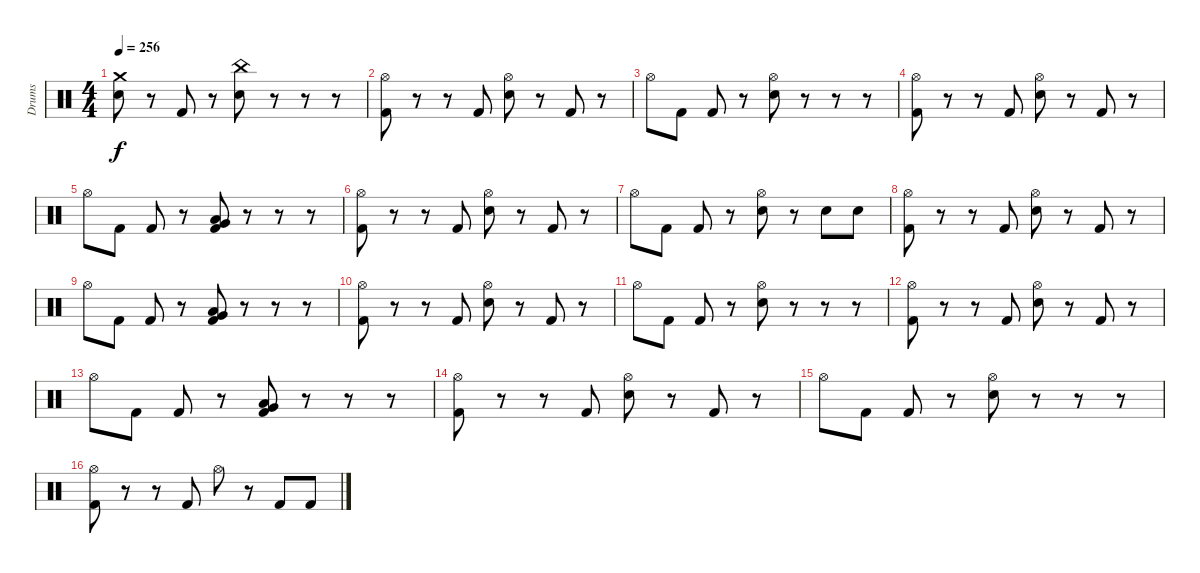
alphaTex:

\track ("Drums" "Drums") {instrument percussion}
\staff {score}
\articulation defaults
\ts (4 4)
\tempo 256
\clef neutral
\ks c
("Crash medium (hit)" "Electric Snare (hit)").8{dy f} r.8 "Kick (hit) 2".8 r.8 ("China (hit)" "Electric Snare (hit)").8 r.8 r.8 r.8 |
("Hi-Hat (open)" "Kick (hit) 2").8 r.8 r.8 "Kick (hit) 2".8 ("Hi-Hat (open)" "Electric Snare (hit)").8 r.8 "Kick (hit) 2".8 r.8 |
"Hi-Hat (open)".8 "Kick (hit) 2".8 "Kick (hit) 2".8 r.8 ("Hi-Hat (open)" "Electric Snare (hit)").8 r.8 r.8 r.8 |
("Hi-Hat (open)" "Kick (hit) 2").8 r.8 r.8 "Kick (hit) 2".8 ("Hi-Hat (open)" "Electric Snare (hit)").8 r.8 "Kick (hit) 2".8 r.8 |
"Hi-Hat (open)".8 "Kick (hit) 2".8 "Kick (hit) 2".8 r.8 ("Low Tom (hit)" "Very Low Tom (hit)" "Kick (hit) 2").8 r.8 r.8 r.8 |
("Hi-Hat (open)" "Kick (hit) 2").8 r.8 r.8 "Kick (hit) 2".8 ("Hi-Hat (open)" "Electric Snare (hit)").8 r.8 "Kick (hit) 2".8 r.8 |
"Hi-Hat (open)".8 "Kick (hit) 2".8 "Kick (hit) 2".8 r.8 ("Hi-Hat (open)" "Electric Snare (hit)").8 r.8 "Electric Snare (hit)".8 "Electric Snare (hit)".8 |
("Hi-Hat (open)" "Kick (hit) 2").8 r.8 r.8 "Kick (hit) 2".8 ("Hi-Hat (open)" "Electric Snare (hit)").8 r.8 "Kick (hit) 2".8 r.8 |
"Hi-Hat (open)".8 "Kick (hit) 2".8 "Kick (hit) 2".8 r.8 ("Low Tom (hit)" "Very Low Tom (hit)" "Kick (hit) 2").8 r.8 r.8 r.8 |
("Hi-Hat (open)" "Kick (hit) 2").8 r.8 r.8 "Kick (hit) 2".8 ("Hi-Hat (open)" "Electric Snare (hit)").8 r.8 "Kick (hit) 2".8 r.8 |
"Hi-Hat (open)".8 "Kick (hit) 2".8 "Kick (hit) 2".8 r.8 ("Hi-Hat (open)" "Electric Snare (hit)").8 r.8 r.8 r.8 |
("Hi-Hat (open)" "Kick (hit) 2").8 r.8 r.8 "Kick (hit) 2".8 ("Hi-Hat (open)" "Electric Snare (hit)").8 r.8 "Kick (hit) 2".8 r.8 |
"Hi-Hat (open)".8 "Kick (hit) 2".8 "Kick (hit) 2".8 r.8 ("Low Tom (hit)" "Very Low Tom (hit)" "Kick (hit) 2").8 r.8 r.8 r.8 |
("Hi-Hat (open)" "Kick (hit) 2").8 r.8 r.8 "Kick (hit) 2".8 ("Hi-Hat (open)" "Electric Snare (hit)").8 r.8 "Kick (hit) 2".8 r.8 |
"Hi-Hat (open)".8 "Kick (hit) 2".8 "Kick (hit) 2".8 r.8 ("Hi-Hat (open)" "Electric Snare (hit)").8 r.8 r.8 r.8 |
("Hi-Hat (open)" "Kick (hit) 2").8 r.8 r.8 "Kick (hit) 2".8 "Hi-Hat (open)".8 r.8 "Kick (hit) 2".8 "Kick (hit) 2".8
